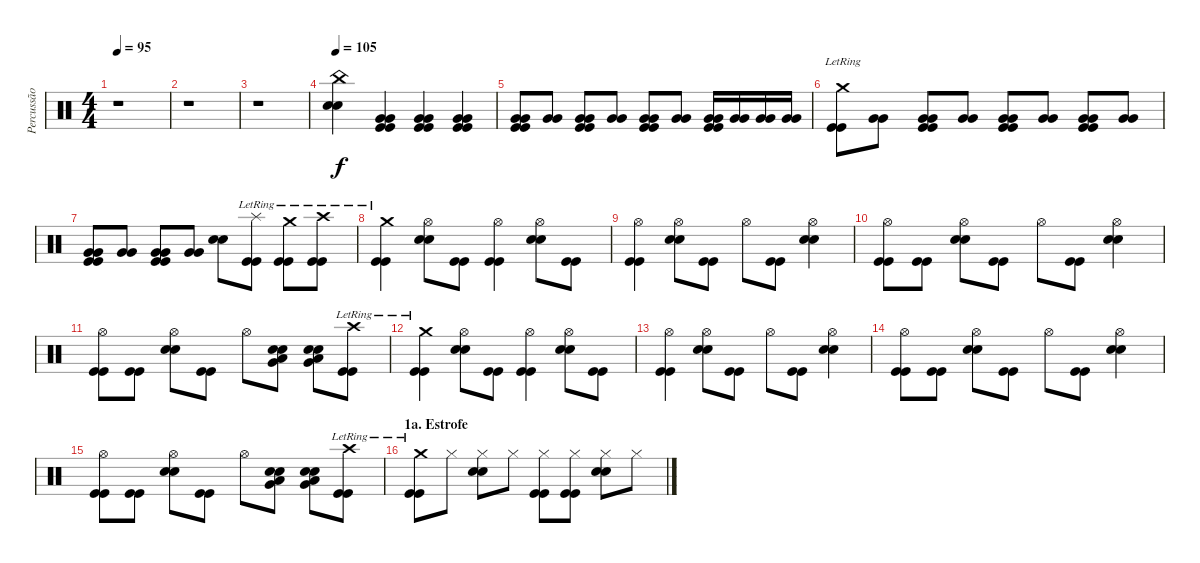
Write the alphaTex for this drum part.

\track ("Percussão" "Percussão") {instrument percussion}
\staff {score}
\articulation defaults
\ts (4 4)
\tempo 95
\clef neutral
\ks c
r.1{dy f} |
r.1 |
r.1 |
\tempo 105
("China (hit)" "Electric Snare (hit)" "Electric Snare (hit)").4 ("Very Low Tom (hit)" "Very Low Tom (hit)" "Kick (hit)" "Kick (hit)").4 ("Very Low Tom (hit)" "Very Low Tom (hit)" "Kick (hit)" "Kick (hit)").4 ("Very Low Tom (hit)" "Very Low Tom (hit)" "Kick (hit)" "Kick (hit)").4 |
("Very Low Tom (hit)" "Very Low Tom (hit)" "Kick (hit)" "Kick (hit)").8 ("Very Low Tom (hit)" "Very Low Tom (hit)").8 ("Very Low Tom (hit)" "Very Low Tom (hit)" "Kick (hit)" "Kick (hit)").8 ("Very Low Tom (hit)" "Very Low Tom (hit)").8 ("Very Low Tom (hit)" "Very Low Tom (hit)" "Kick (hit)" "Kick (hit)").8 ("Very Low Tom (hit)" "Very Low Tom (hit)").8 ("Very Low Tom (hit)" "Very Low Tom (hit)" "Kick (hit)" "Kick (hit)").16 ("Very Low Tom (hit)" "Very Low Tom (hit)").16 ("Very Low Tom (hit)" "Very Low Tom (hit)").16 ("Very Low Tom (hit)" "Very Low Tom (hit)").16 |
("Crash medium (hit)"{lr} "Kick (hit)" "Kick (hit)").8 ("Very Low Tom (hit)" "Very Low Tom (hit)").8 ("Very Low Tom (hit)" "Very Low Tom (hit)" "Kick (hit)" "Kick (hit)").8 ("Very Low Tom (hit)" "Very Low Tom (hit)").8 ("Very Low Tom (hit)" "Very Low Tom (hit)" "Kick (hit)" "Kick (hit)").8 ("Very Low Tom (hit)" "Very Low Tom (hit)").8 ("Very Low Tom (hit)" "Very Low Tom (hit)" "Kick (hit)" "Kick (hit)").8 ("Very Low Tom (hit)" "Very Low Tom (hit)").8 |
("Very Low Tom (hit)" "Very Low Tom (hit)" "Kick (hit)" "Kick (hit)").8 ("Very Low Tom (hit)" "Very Low Tom (hit)").8 ("Very Low Tom (hit)" "Very Low Tom (hit)" "Kick (hit)" "Kick (hit)").8 ("Very Low Tom (hit)" "Very Low Tom (hit)").8 ("Electric Snare (hit)" "Electric Snare (hit)").8 ("Splash (hit)"{lr} "Kick (hit)" "Kick (hit)").8 ("Crash medium (hit)"{lr} "Kick (hit)" "Kick (hit)").8 ("Crash high (hit)"{lr} "Kick (hit)" "Kick (hit)").8 |
("Crash medium (hit)"{lr} "Kick (hit)" "Kick (hit)").4 ("Hi-Hat (open)" "Electric Snare (hit)" "Electric Snare (hit)").8 ("Kick (hit)" "Kick (hit)").8 ("Hi-Hat (open)" "Kick (hit)" "Kick (hit)").4 ("Hi-Hat (open)" "Electric Snare (hit)" "Electric Snare (hit)").8 ("Kick (hit)" "Kick (hit)").8 |
("Hi-Hat (open)" "Kick (hit)" "Kick (hit)").4 ("Hi-Hat (open)" "Electric Snare (hit)" "Electric Snare (hit)").8 ("Kick (hit)" "Kick (hit)").8 "Hi-Hat (open)".8 ("Kick (hit)" "Kick (hit)").8 ("Hi-Hat (open)" "Electric Snare (hit)" "Electric Snare (hit)").4 |
("Hi-Hat (open)" "Kick (hit)" "Kick (hit)").8 ("Kick (hit)" "Kick (hit)").8 ("Hi-Hat (open)" "Electric Snare (hit)" "Electric Snare (hit)").8 ("Kick (hit)" "Kick (hit)").8 "Hi-Hat (open)".8 ("Kick (hit)" "Kick (hit)").8 ("Hi-Hat (open)" "Electric Snare (hit)" "Electric Snare (hit)").4 |
("Hi-Hat (open)" "Kick (hit)" "Kick (hit)").8 ("Kick (hit)" "Kick (hit)").8 ("Hi-Hat (open)" "Electric Snare (hit)" "Electric Snare (hit)").8 ("Kick (hit)" "Kick (hit)").8 "Hi-Hat (open)".8 ("Low Tom (hit)" "Very Low Tom (hit)" "Electric Snare (hit)" "Electric Snare (hit)").8 ("Low Tom (hit)" "Very Low Tom (hit)" "Electric Snare (hit)" "Electric Snare (hit)").8 ("Crash high (hit)"{lr} "Kick (hit)" "Kick (hit)").8 |
("Crash medium (hit)"{lr} "Kick (hit)" "Kick (hit)").4 ("Hi-Hat (open)" "Electric Snare (hit)" "Electric Snare (hit)").8 ("Kick (hit)" "Kick (hit)").8 ("Hi-Hat (open)" "Kick (hit)" "Kick (hit)").4 ("Hi-Hat (open)" "Electric Snare (hit)" "Electric Snare (hit)").8 ("Kick (hit)" "Kick (hit)").8 |
("Hi-Hat (open)" "Kick (hit)" "Kick (hit)").4 ("Hi-Hat (open)" "Electric Snare (hit)" "Electric Snare (hit)").8 ("Kick (hit)" "Kick (hit)").8 "Hi-Hat (open)".8 ("Kick (hit)" "Kick (hit)").8 ("Hi-Hat (open)" "Electric Snare (hit)" "Electric Snare (hit)").4 |
("Hi-Hat (open)" "Kick (hit)" "Kick (hit)").8 ("Kick (hit)" "Kick (hit)").8 ("Hi-Hat (open)" "Electric Snare (hit)" "Electric Snare (hit)").8 ("Kick (hit)" "Kick (hit)").8 "Hi-Hat (open)".8 ("Kick (hit)" "Kick (hit)").8 ("Hi-Hat (open)" "Electric Snare (hit)" "Electric Snare (hit)").4 |
("Hi-Hat (open)" "Kick (hit)" "Kick (hit)").8 ("Kick (hit)" "Kick (hit)").8 ("Hi-Hat (open)" "Electric Snare (hit)" "Electric Snare (hit)").8 ("Kick (hit)" "Kick (hit)").8 "Hi-Hat (open)".8 ("Low Tom (hit)" "Very Low Tom (hit)" "Electric Snare (hit)" "Electric Snare (hit)").8 ("Low Tom (hit)" "Very Low Tom (hit)" "Electric Snare (hit)" "Electric Snare (hit)").8 ("Crash high (hit)"{lr} "Kick (hit)" "Kick (hit)").8 |
\section ("" "1a. Estrofe")
("Crash medium (hit)"{lr} "Kick (hit)" "Kick (hit)").8 "Hi-Hat (closed)".8 ("Hi-Hat (closed)" "Electric Snare (hit)" "Electric Snare (hit)").8 "Hi-Hat (closed)".8 ("Hi-Hat (closed)" "Kick (hit)" "Kick (hit)").8 ("Hi-Hat (closed)" "Kick (hit)" "Kick (hit)").8 ("Hi-Hat (closed)" "Electric Snare (hit)" "Electric Snare (hit)").8 "Hi-Hat (closed)".8
